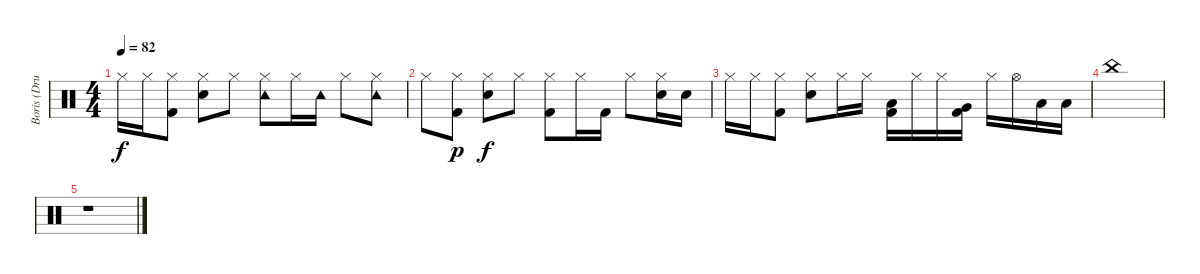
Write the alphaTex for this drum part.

\track ("Boris (Drums)" "Boris (Dru") {instrument percussion}
\staff {score}
\articulation defaults
\ts (4 4)
\tempo 82
\clef neutral
\ks c "Hi-Hat (closed)".16{dy f} "Hi-Hat (closed)".16
("Kick (hit) 2" "Hi-Hat (closed)").8 ("Snare (hit) 2" "Hi-Hat (closed)").8 "Hi-Hat (closed)".8 ("Tambourine (hit)" "Hi-Hat (closed)").8 "Hi-Hat (closed)".16 "Tambourine (hit)".16 "Hi-Hat (closed)".8 ("Tambourine (hit)" "Hi-Hat (closed)").8 |
"Hi-Hat (closed)".8 ("Hi-Hat (closed)" "Kick (hit) 2").8{dy p} ("Snare (hit) 2" "Hi-Hat (closed)").8{dy f} "Hi-Hat (closed)".8 ("Kick (hit) 2" "Hi-Hat (closed)").8 "Hi-Hat (closed)".16 "Kick (hit) 2".16 "Hi-Hat (closed)".8 ("Hand Clap (hit)" "Hi-Hat (closed)").16 "Hand Clap (hit)".16 |
"Hi-Hat (closed)".16 "Hi-Hat (closed)".16 ("Kick (hit) 2" "Hi-Hat (closed)").8 ("Snare (hit) 2" "Hi-Hat (closed)").8 "Hi-Hat (closed)".16 "Hi-Hat (closed)".16 ("Low Tom (hit)" "Kick (hit) 2").16 "Hi-Hat (closed)".16 "Hi-Hat (closed)".16 ("Very Low Tom (hit)" "Kick (hit) 2").16 "Hi-Hat (closed)".16 "Hi-Hat (open)".16 "Low Floor Tom (hit)".16 "Low Floor Tom (hit)".16 |
"China (hit)".1 |
r.1
